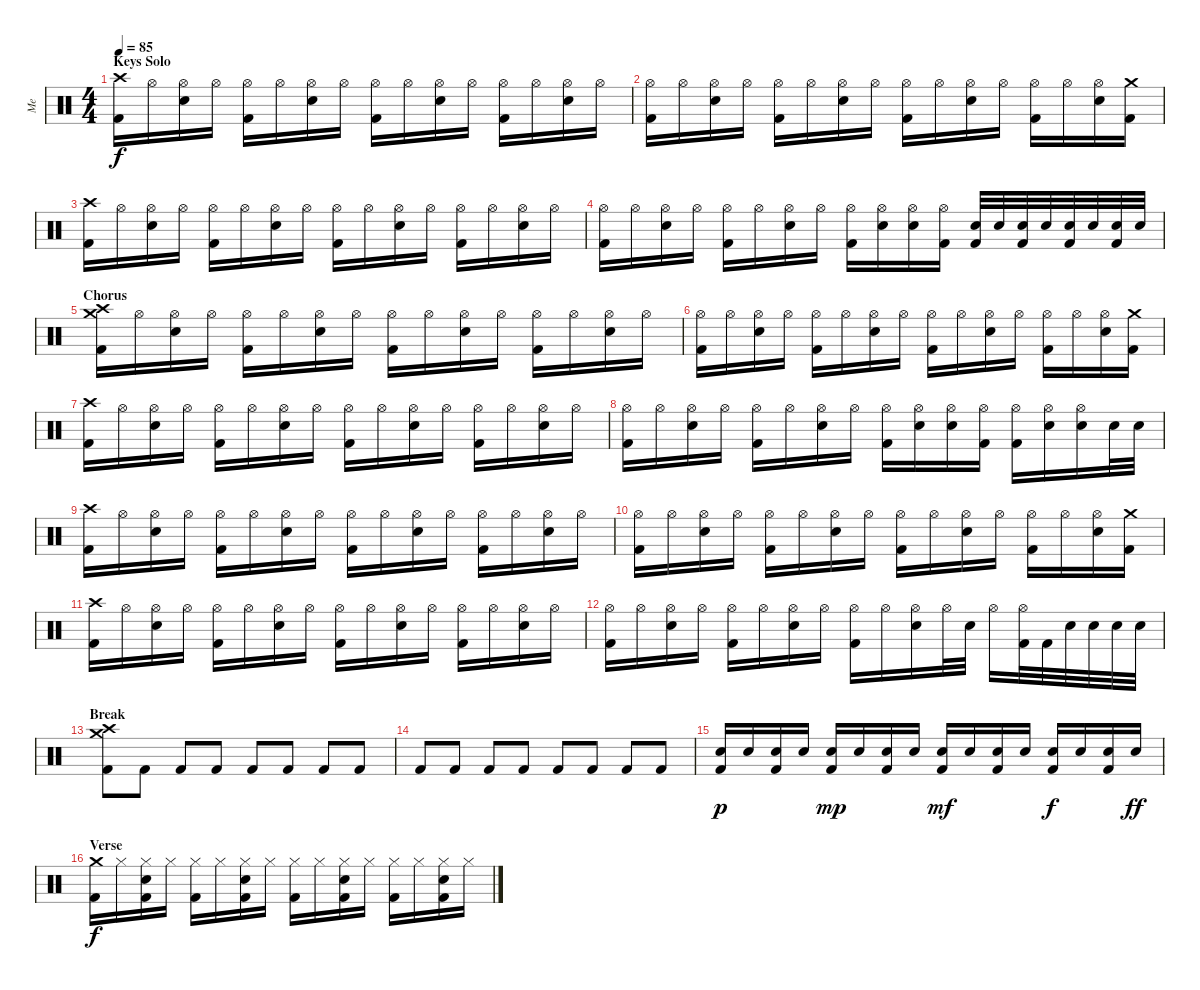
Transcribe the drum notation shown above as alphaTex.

\track ("Me" "Me") {instrument percussion}
\staff {score}
\articulation defaults
\ts (4 4)
\section ("" "Keys Solo")
\tempo 85
\clef neutral
\ks c
("Crash high (hit)" "Kick (hit) 2").16{dy f} "Hi-Hat (open)".16 ("Hi-Hat (open)" "Electric Snare (hit)").16 "Hi-Hat (open)".16 ("Hi-Hat (open)" "Kick (hit) 2").16 "Hi-Hat (open)".16 ("Hi-Hat (open)" "Electric Snare (hit)").16 "Hi-Hat (open)".16 ("Hi-Hat (open)" "Kick (hit) 2").16 "Hi-Hat (open)".16 ("Hi-Hat (open)" "Electric Snare (hit)").16 "Hi-Hat (open)".16 ("Hi-Hat (open)" "Kick (hit) 2").16 "Hi-Hat (open)".16 ("Hi-Hat (open)" "Electric Snare (hit)").16 "Hi-Hat (open)".16 |
("Hi-Hat (open)" "Kick (hit) 2").16 "Hi-Hat (open)".16 ("Hi-Hat (open)" "Electric Snare (hit)").16 "Hi-Hat (open)".16 ("Hi-Hat (open)" "Kick (hit) 2").16 "Hi-Hat (open)".16 ("Hi-Hat (open)" "Electric Snare (hit)").16 "Hi-Hat (open)".16 ("Hi-Hat (open)" "Kick (hit) 2").16 "Hi-Hat (open)".16 ("Hi-Hat (open)" "Electric Snare (hit)").16 "Hi-Hat (open)".16 ("Hi-Hat (open)" "Kick (hit) 2").16 "Hi-Hat (open)".16 ("Hi-Hat (open)" "Electric Snare (hit)").16 ("Crash medium (hit)" "Kick (hit) 2").16 |
("Crash high (hit)" "Kick (hit) 2").16 "Hi-Hat (open)".16 ("Hi-Hat (open)" "Electric Snare (hit)").16 "Hi-Hat (open)".16 ("Hi-Hat (open)" "Kick (hit) 2").16 "Hi-Hat (open)".16 ("Hi-Hat (open)" "Electric Snare (hit)").16 "Hi-Hat (open)".16 ("Hi-Hat (open)" "Kick (hit) 2").16 "Hi-Hat (open)".16 ("Hi-Hat (open)" "Electric Snare (hit)").16 "Hi-Hat (open)".16 ("Hi-Hat (open)" "Kick (hit) 2").16 "Hi-Hat (open)".16 ("Hi-Hat (open)" "Electric Snare (hit)").16 "Hi-Hat (open)".16 |
("Hi-Hat (open)" "Kick (hit) 2").16 "Hi-Hat (open)".16 ("Hi-Hat (open)" "Electric Snare (hit)").16 "Hi-Hat (open)".16 ("Hi-Hat (open)" "Kick (hit) 2").16 "Hi-Hat (open)".16 ("Hi-Hat (open)" "Electric Snare (hit)").16 "Hi-Hat (open)".16 ("Hi-Hat (open)" "Kick (hit) 2").16 ("Hi-Hat (open)" "Electric Snare (hit)").16 ("Hi-Hat (open)" "Electric Snare (hit)").16 ("Hi-Hat (open)" "Kick (hit) 2").16 ("Electric Snare (hit)" "Kick (hit) 2").32 "Electric Snare (hit)".32 ("Electric Snare (hit)" "Kick (hit) 2").32 "Electric Snare (hit)".32 ("Electric Snare (hit)" "Kick (hit) 2").32 "Electric Snare (hit)".32 ("Electric Snare (hit)" "Kick (hit) 2").32 "Electric Snare (hit)".32 |
\section ("" "Chorus")
("Crash high (hit)" "Crash medium (hit)" "Kick (hit) 2").16 "Hi-Hat (open)".16 ("Hi-Hat (open)" "Electric Snare (hit)").16 "Hi-Hat (open)".16 ("Hi-Hat (open)" "Kick (hit) 2").16 "Hi-Hat (open)".16 ("Hi-Hat (open)" "Electric Snare (hit)").16 "Hi-Hat (open)".16 ("Hi-Hat (open)" "Kick (hit) 2").16 "Hi-Hat (open)".16 ("Hi-Hat (open)" "Electric Snare (hit)").16 "Hi-Hat (open)".16 ("Hi-Hat (open)" "Kick (hit) 2").16 "Hi-Hat (open)".16 ("Hi-Hat (open)" "Electric Snare (hit)").16 "Hi-Hat (open)".16 |
("Hi-Hat (open)" "Kick (hit) 2").16 "Hi-Hat (open)".16 ("Hi-Hat (open)" "Electric Snare (hit)").16 "Hi-Hat (open)".16 ("Hi-Hat (open)" "Kick (hit) 2").16 "Hi-Hat (open)".16 ("Hi-Hat (open)" "Electric Snare (hit)").16 "Hi-Hat (open)".16 ("Hi-Hat (open)" "Kick (hit) 2").16 "Hi-Hat (open)".16 ("Hi-Hat (open)" "Electric Snare (hit)").16 "Hi-Hat (open)".16 ("Hi-Hat (open)" "Kick (hit) 2").16 "Hi-Hat (open)".16 ("Hi-Hat (open)" "Electric Snare (hit)").16 ("Crash medium (hit)" "Kick (hit) 2").16 |
("Crash high (hit)" "Kick (hit) 2").16 "Hi-Hat (open)".16 ("Hi-Hat (open)" "Electric Snare (hit)").16 "Hi-Hat (open)".16 ("Hi-Hat (open)" "Kick (hit) 2").16 "Hi-Hat (open)".16 ("Hi-Hat (open)" "Electric Snare (hit)").16 "Hi-Hat (open)".16 ("Hi-Hat (open)" "Kick (hit) 2").16 "Hi-Hat (open)".16 ("Hi-Hat (open)" "Electric Snare (hit)").16 "Hi-Hat (open)".16 ("Hi-Hat (open)" "Kick (hit) 2").16 "Hi-Hat (open)".16 ("Hi-Hat (open)" "Electric Snare (hit)").16 "Hi-Hat (open)".16 |
("Hi-Hat (open)" "Kick (hit) 2").16 "Hi-Hat (open)".16 ("Hi-Hat (open)" "Electric Snare (hit)").16 "Hi-Hat (open)".16 ("Hi-Hat (open)" "Kick (hit) 2").16 "Hi-Hat (open)".16 ("Hi-Hat (open)" "Electric Snare (hit)").16 "Hi-Hat (open)".16 ("Hi-Hat (open)" "Kick (hit) 2").16 ("Hi-Hat (open)" "Electric Snare (hit)").16 ("Hi-Hat (open)" "Electric Snare (hit)").16 ("Hi-Hat (open)" "Kick (hit) 2").16 ("Hi-Hat (open)" "Kick (hit) 2").16 ("Hi-Hat (open)" "Electric Snare (hit)").16 ("Hi-Hat (open)" "Electric Snare (hit)").16 "Electric Snare (hit)".32 "Electric Snare (hit)".32 |
("Crash high (hit)" "Kick (hit) 2").16 "Hi-Hat (open)".16 ("Hi-Hat (open)" "Electric Snare (hit)").16 "Hi-Hat (open)".16 ("Hi-Hat (open)" "Kick (hit) 2").16 "Hi-Hat (open)".16 ("Hi-Hat (open)" "Electric Snare (hit)").16 "Hi-Hat (open)".16 ("Hi-Hat (open)" "Kick (hit) 2").16 "Hi-Hat (open)".16 ("Hi-Hat (open)" "Electric Snare (hit)").16 "Hi-Hat (open)".16 ("Hi-Hat (open)" "Kick (hit) 2").16 "Hi-Hat (open)".16 ("Hi-Hat (open)" "Electric Snare (hit)").16 "Hi-Hat (open)".16 |
("Hi-Hat (open)" "Kick (hit) 2").16 "Hi-Hat (open)".16 ("Hi-Hat (open)" "Electric Snare (hit)").16 "Hi-Hat (open)".16 ("Hi-Hat (open)" "Kick (hit) 2").16 "Hi-Hat (open)".16 ("Hi-Hat (open)" "Electric Snare (hit)").16 "Hi-Hat (open)".16 ("Hi-Hat (open)" "Kick (hit) 2").16 "Hi-Hat (open)".16 ("Hi-Hat (open)" "Electric Snare (hit)").16 "Hi-Hat (open)".16 ("Hi-Hat (open)" "Kick (hit) 2").16 "Hi-Hat (open)".16 ("Hi-Hat (open)" "Electric Snare (hit)").16 ("Crash medium (hit)" "Kick (hit) 2").16 |
("Crash high (hit)" "Kick (hit) 2").16 "Hi-Hat (open)".16 ("Hi-Hat (open)" "Electric Snare (hit)").16 "Hi-Hat (open)".16 ("Hi-Hat (open)" "Kick (hit) 2").16 "Hi-Hat (open)".16 ("Hi-Hat (open)" "Electric Snare (hit)").16 "Hi-Hat (open)".16 ("Hi-Hat (open)" "Kick (hit) 2").16 "Hi-Hat (open)".16 ("Hi-Hat (open)" "Electric Snare (hit)").16 "Hi-Hat (open)".16 ("Hi-Hat (open)" "Kick (hit) 2").16 "Hi-Hat (open)".16 ("Hi-Hat (open)" "Electric Snare (hit)").16 "Hi-Hat (open)".16 |
("Hi-Hat (open)" "Kick (hit) 2").16 "Hi-Hat (open)".16 ("Hi-Hat (open)" "Electric Snare (hit)").16 "Hi-Hat (open)".16 ("Hi-Hat (open)" "Kick (hit) 2").16 "Hi-Hat (open)".16 ("Hi-Hat (open)" "Electric Snare (hit)").16 "Hi-Hat (open)".16 ("Hi-Hat (open)" "Kick (hit) 2").16 "Hi-Hat (open)".16 ("Hi-Hat (open)" "Electric Snare (hit)").16 "Hi-Hat (open)".32 "Electric Snare (hit)".32 "Hi-Hat (open)".16 ("Hi-Hat (open)" "Kick (hit) 2").32 "Kick (hit) 2".32 "Electric Snare (hit)".32 "Electric Snare (hit)".32 "Electric Snare (hit)".32 "Electric Snare (hit)".32 |
\section ("" "Break")
("Crash medium (hit)" "Crash high (hit)" "Kick (hit) 2").8 "Kick (hit) 2".8 "Kick (hit) 2".8 "Kick (hit) 2".8 "Kick (hit) 2".8 "Kick (hit) 2".8 "Kick (hit) 2".8 "Kick (hit) 2".8 |
"Kick (hit) 2".8 "Kick (hit) 2".8 "Kick (hit) 2".8 "Kick (hit) 2".8 "Kick (hit) 2".8 "Kick (hit) 2".8 "Kick (hit) 2".8 "Kick (hit) 2".8 |
("Electric Snare (hit)" "Kick (hit) 2").16{dy p} "Electric Snare (hit)".16 ("Electric Snare (hit)" "Kick (hit) 2").16 "Electric Snare (hit)".16 ("Electric Snare (hit)" "Kick (hit) 2").16{dy mp} "Electric Snare (hit)".16 ("Electric Snare (hit)" "Kick (hit) 2").16 "Electric Snare (hit)".16 ("Electric Snare (hit)" "Kick (hit) 2").16{dy mf} "Electric Snare (hit)".16 ("Electric Snare (hit)" "Kick (hit) 2").16 "Electric Snare (hit)".16 ("Electric Snare (hit)" "Kick (hit) 2").16{dy f} "Electric Snare (hit)".16 ("Electric Snare (hit)" "Kick (hit) 2").16 "Electric Snare (hit)".16{dy ff} |
\section ("" "Verse")
("Crash medium (hit)" "Kick (hit) 2").16{dy f} "Hi-Hat (closed)".16 ("Hi-Hat (closed)" "Electric Snare (hit)" "Kick (hit) 2").16 "Hi-Hat (closed)".16 ("Hi-Hat (closed)" "Kick (hit) 2").16 "Hi-Hat (closed)".16 ("Hi-Hat (closed)" "Electric Snare (hit)" "Kick (hit) 2").16 "Hi-Hat (closed)".16 ("Hi-Hat (closed)" "Kick (hit) 2").16 "Hi-Hat (closed)".16 ("Hi-Hat (closed)" "Electric Snare (hit)" "Kick (hit) 2").16 "Hi-Hat (closed)".16 ("Hi-Hat (closed)" "Kick (hit) 2").16 "Hi-Hat (closed)".16 ("Hi-Hat (closed)" "Electric Snare (hit)" "Kick (hit) 2").16 "Hi-Hat (closed)".16
